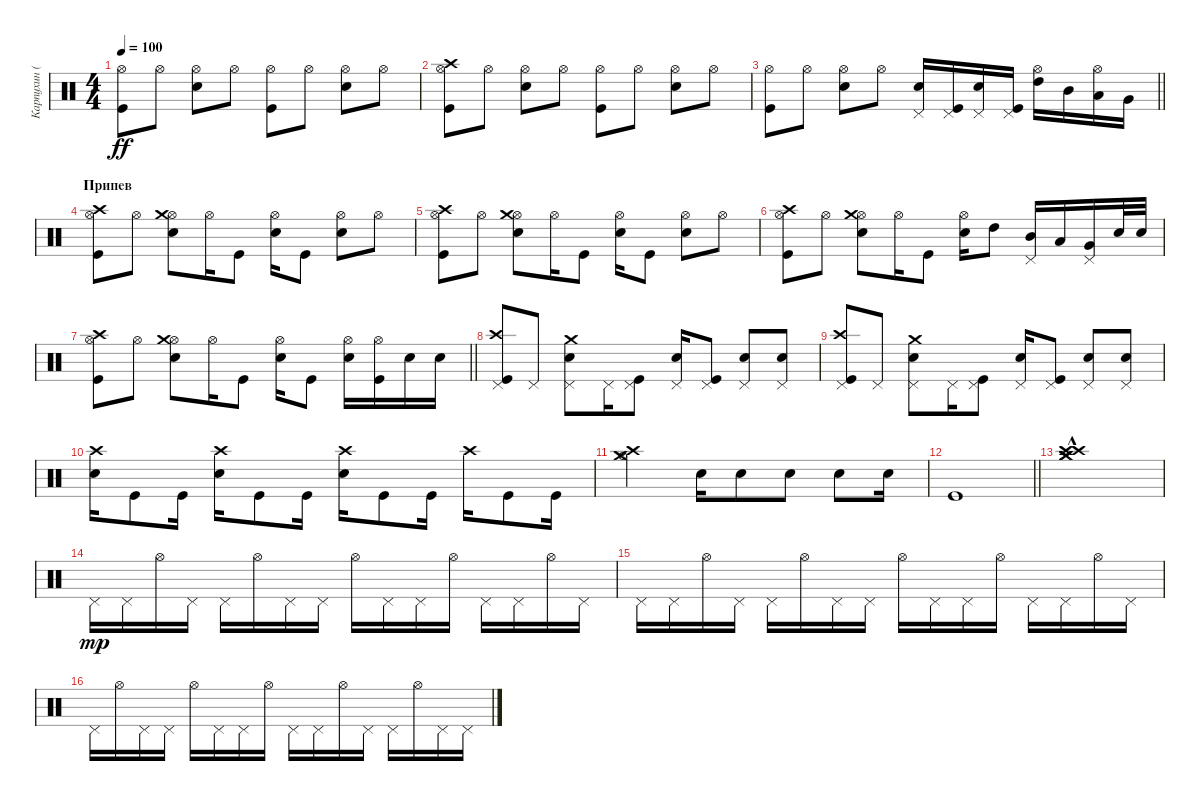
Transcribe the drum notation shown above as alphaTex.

\track ("Карпухин (ударные)" "Карпухин (") {instrument percussion}
\staff {score}
\articulation defaults
\ts (4 4)
\tempo 100
\clef neutral
\ks c
("Hi-Hat (open)" "Kick (hit)").8{dy ff} "Hi-Hat (open)".8 ("Hi-Hat (open)" "Snare (hit) 2").8 "Hi-Hat (open)".8 ("Hi-Hat (open)" "Kick (hit)").8 "Hi-Hat (open)".8 ("Hi-Hat (open)" "Snare (hit) 2").8 "Hi-Hat (open)".8 |
("Hi-Hat (open)" "Kick (hit)" "Crash high (hit)").8 "Hi-Hat (open)".8 ("Hi-Hat (open)" "Snare (hit) 2").8 "Hi-Hat (open)".8 ("Hi-Hat (open)" "Kick (hit)").8 "Hi-Hat (open)".8 ("Hi-Hat (open)" "Snare (hit) 2").8 "Hi-Hat (open)".8 |
\barLineRight lightlight
("Hi-Hat (open)" "Kick (hit)").8 "Hi-Hat (open)".8 ("Hi-Hat (open)" "Snare (hit) 2").8 "Hi-Hat (open)".8 ("Pedal Hi-Hat (hit)" "Snare (hit) 2").16 ("Pedal Hi-Hat (hit)" "Kick (hit)").16 ("Pedal Hi-Hat (hit)" "Electric Snare (hit)").16 ("Pedal Hi-Hat (hit)" "Kick (hit)").16 ("Hi-Hat (open)" "High Tom (hit)").16 "Mid Tom (hit)".16 ("Hi-Hat (open)" "Low Tom (hit)").16 "Very Low Tom (hit)".16 |
\section ("" "Припев")
("Hi-Hat (open)" "Kick (hit)" "Crash high (hit)").8 "Hi-Hat (open)".8 ("Hi-Hat (open)" "Snare (hit) 2" "Crash medium (hit)").8 "Hi-Hat (open)".16 "Kick (hit)".8 ("Hi-Hat (open)" "Snare (hit) 2").16 "Kick (hit)".8 ("Hi-Hat (open)" "Snare (hit) 2").8 "Hi-Hat (open)".8 |
("Hi-Hat (open)" "Kick (hit)" "Crash high (hit)").8 "Hi-Hat (open)".8 ("Hi-Hat (open)" "Snare (hit) 2" "Crash medium (hit)").8 "Hi-Hat (open)".16 "Kick (hit)".8 ("Hi-Hat (open)" "Snare (hit) 2").16 "Kick (hit)".8 ("Hi-Hat (open)" "Snare (hit) 2").8 "Hi-Hat (open)".8 |
("Hi-Hat (open)" "Kick (hit)" "Crash high (hit)").8 "Hi-Hat (open)".8 ("Hi-Hat (open)" "Snare (hit) 2" "Crash medium (hit)").8 "Hi-Hat (open)".16 "Kick (hit)".8 ("Hi-Hat (open)" "Snare (hit) 2").16 "High Tom (hit)".8 ("Pedal Hi-Hat (hit)" "Mid Tom (hit)").16 "Low Tom (hit)".16 ("Pedal Hi-Hat (hit)" "Very Low Tom (hit)").16 "Electric Snare (hit)".32 "Snare (hit) 2".32 |
\barLineRight lightlight
("Hi-Hat (open)" "Kick (hit)" "Crash high (hit)").8 "Hi-Hat (open)".8 ("Hi-Hat (open)" "Snare (hit) 2" "Crash medium (hit)").8 "Hi-Hat (open)".16 "Kick (hit)".8 ("Hi-Hat (open)" "Snare (hit) 2").16 "Kick (hit)".8 ("Hi-Hat (open)" "Snare (hit) 2").16 ("Hi-Hat (open)" "Kick (hit)").16 "Snare (hit) 2".16 "Snare (hit) 2".16 |
("Pedal Hi-Hat (hit)" "Kick (hit)" "Crash high (hit)").8 "Pedal Hi-Hat (hit)".8 ("Pedal Hi-Hat (hit)" "Snare (hit) 2" "Crash medium (hit)").8 "Pedal Hi-Hat (hit)".16 ("Pedal Hi-Hat (hit)" "Kick (hit)").8 ("Pedal Hi-Hat (hit)" "Snare (hit) 2").16 ("Pedal Hi-Hat (hit)" "Kick (hit)").8 ("Pedal Hi-Hat (hit)" "Snare (hit) 2").8 ("Pedal Hi-Hat (hit)" "Snare (hit) 2").8 |
("Pedal Hi-Hat (hit)" "Kick (hit)" "Crash high (hit)").8 "Pedal Hi-Hat (hit)".8 ("Pedal Hi-Hat (hit)" "Snare (hit) 2" "Crash medium (hit)").8 "Pedal Hi-Hat (hit)".16 ("Pedal Hi-Hat (hit)" "Kick (hit)").8 ("Pedal Hi-Hat (hit)" "Snare (hit) 2").16 ("Pedal Hi-Hat (hit)" "Kick (hit)").8 ("Pedal Hi-Hat (hit)" "Snare (hit) 2").8 ("Pedal Hi-Hat (hit)" "Snare (hit) 2").8 |
("Snare (hit) 2" "Crash high (hit)").16 "Kick (hit)".8 "Kick (hit)".16 ("Snare (hit) 2" "Crash high (hit)").16 "Kick (hit)".8 "Kick (hit)".16 ("Snare (hit) 2" "Crash high (hit)").16 "Kick (hit)".8 "Kick (hit)".16 "Crash high (hit)".16 "Kick (hit)".8 "Kick (hit)".16 |
("Crash high (hit)" "Crash medium (hit)" "Hi-Hat (open)").2 "Snare (hit) 2".16 "Snare (hit) 2".8 "Snare (hit) 2".8 "Snare (hit) 2".8 "Snare (hit) 2".16 |
\barLineRight lightlight "Kick (hit)".1
|
("Crash high (hit)"{hac} "Crash medium (hit)"{hac} "Crash high (hit)"{hac} "Crash medium (hit)"{hac}).1 |
"Pedal Hi-Hat (hit)".16{dy mp} "Pedal Hi-Hat (hit)".16 "Hi-Hat (open)".16 "Pedal Hi-Hat (hit)".16 "Pedal Hi-Hat (hit)".16 "Hi-Hat (open)".16 "Pedal Hi-Hat (hit)".16 "Pedal Hi-Hat (hit)".16 "Hi-Hat (open)".16 "Pedal Hi-Hat (hit)".16 "Pedal Hi-Hat (hit)".16 "Hi-Hat (open)".16 "Pedal Hi-Hat (hit)".16 "Pedal Hi-Hat (hit)".16 "Hi-Hat (open)".16 "Pedal Hi-Hat (hit)".16 |
"Pedal Hi-Hat (hit)".16 "Pedal Hi-Hat (hit)".16 "Hi-Hat (open)".16 "Pedal Hi-Hat (hit)".16 "Pedal Hi-Hat (hit)".16 "Hi-Hat (open)".16 "Pedal Hi-Hat (hit)".16 "Pedal Hi-Hat (hit)".16 "Hi-Hat (open)".16 "Pedal Hi-Hat (hit)".16 "Pedal Hi-Hat (hit)".16 "Hi-Hat (open)".16 "Pedal Hi-Hat (hit)".16 "Pedal Hi-Hat (hit)".16 "Hi-Hat (open)".16 "Pedal Hi-Hat (hit)".16 |
"Pedal Hi-Hat (hit)".16 "Hi-Hat (open)".16 "Pedal Hi-Hat (hit)".16 "Pedal Hi-Hat (hit)".16 "Hi-Hat (open)".16 "Pedal Hi-Hat (hit)".16 "Pedal Hi-Hat (hit)".16 "Hi-Hat (open)".16 "Pedal Hi-Hat (hit)".16 "Pedal Hi-Hat (hit)".16 "Hi-Hat (open)".16 "Pedal Hi-Hat (hit)".16 "Pedal Hi-Hat (hit)".16 "Hi-Hat (open)".16 "Pedal Hi-Hat (hit)".16 "Pedal Hi-Hat (hit)".16
